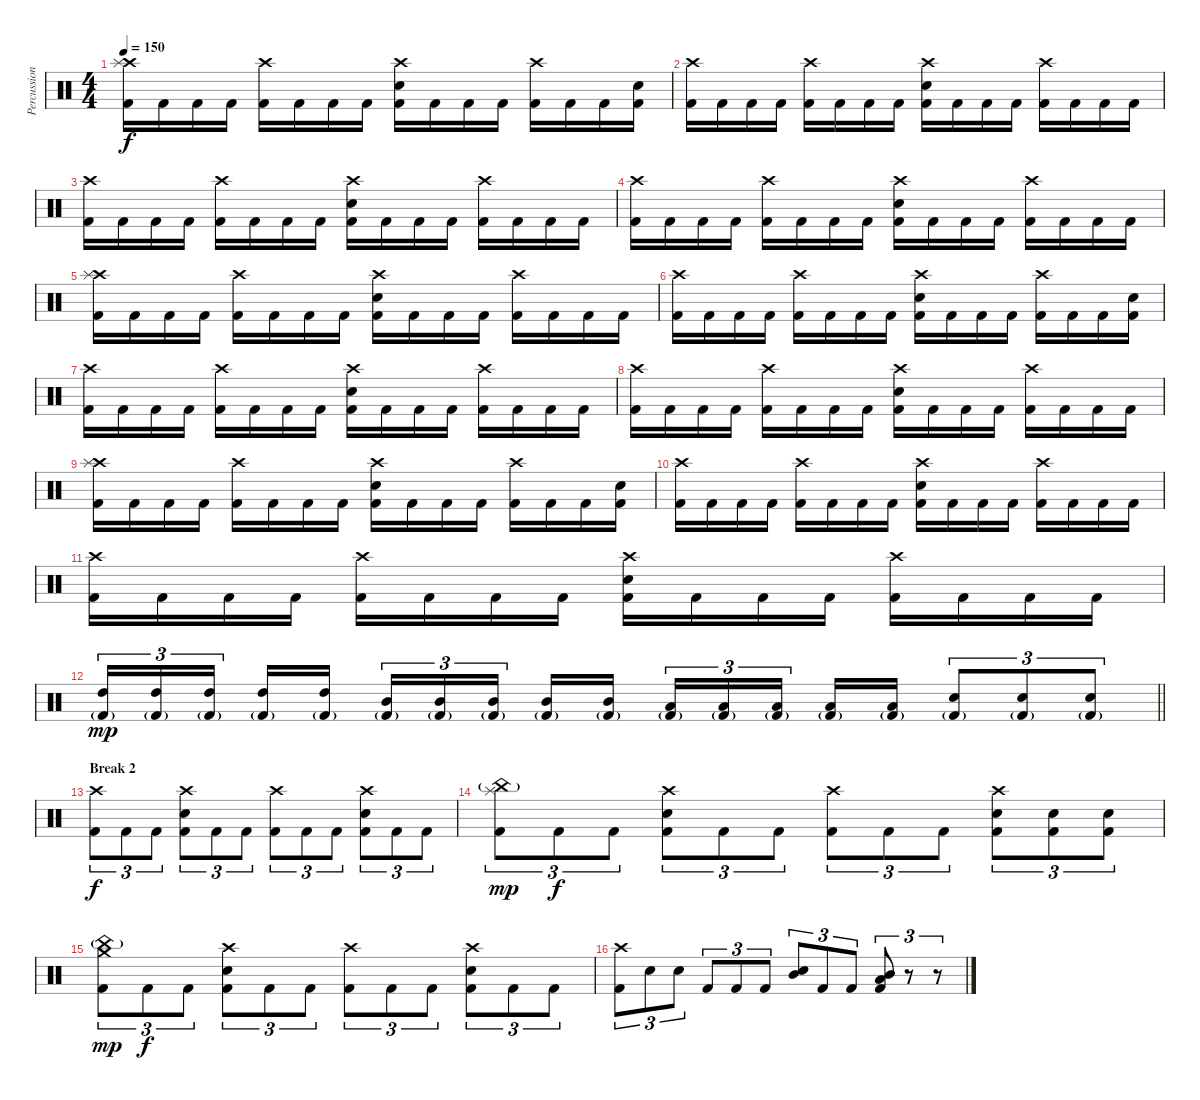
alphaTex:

\track ("Percussion" "Percussion") {instrument percussion}
\staff {score}
\articulation defaults
\ts (4 4)
\tempo 150
\clef neutral
\ks c
("Crash high (hit)" "Splash (hit)" "Kick (hit) 2").16{dy f} "Kick (hit) 2".16 "Kick (hit) 2".16 "Kick (hit) 2".16 ("Crash high (hit)" "Kick (hit) 2").16 "Kick (hit) 2".16 "Kick (hit) 2".16 "Kick (hit) 2".16 ("Crash high (hit)" "Snare (hit) 2" "Kick (hit) 2").16 "Kick (hit) 2".16 "Kick (hit) 2".16 "Kick (hit) 2".16 ("Crash high (hit)" "Kick (hit) 2").16 "Kick (hit) 2".16 "Kick (hit) 2".16 ("Snare (hit) 2" "Kick (hit) 2").16 |
("Crash high (hit)" "Kick (hit) 2").16 "Kick (hit) 2".16 "Kick (hit) 2".16 "Kick (hit) 2".16 ("Crash high (hit)" "Kick (hit) 2").16 "Kick (hit) 2".16 "Kick (hit) 2".16 "Kick (hit) 2".16 ("Crash high (hit)" "Snare (hit) 2" "Kick (hit) 2").16 "Kick (hit) 2".16 "Kick (hit) 2".16 "Kick (hit) 2".16 ("Crash high (hit)" "Kick (hit) 2").16 "Kick (hit) 2".16 "Kick (hit) 2".16 "Kick (hit) 2".16 |
("Crash high (hit)" "Kick (hit) 2").16 "Kick (hit) 2".16 "Kick (hit) 2".16 "Kick (hit) 2".16 ("Crash high (hit)" "Kick (hit) 2").16 "Kick (hit) 2".16 "Kick (hit) 2".16 "Kick (hit) 2".16 ("Crash high (hit)" "Snare (hit) 2" "Kick (hit) 2").16 "Kick (hit) 2".16 "Kick (hit) 2".16 "Kick (hit) 2".16 ("Crash high (hit)" "Kick (hit) 2").16 "Kick (hit) 2".16 "Kick (hit) 2".16 "Kick (hit) 2".16 |
("Crash high (hit)" "Kick (hit) 2").16 "Kick (hit) 2".16 "Kick (hit) 2".16 "Kick (hit) 2".16 ("Crash high (hit)" "Kick (hit) 2").16 "Kick (hit) 2".16 "Kick (hit) 2".16 "Kick (hit) 2".16 ("Crash high (hit)" "Snare (hit) 2" "Kick (hit) 2").16 "Kick (hit) 2".16 "Kick (hit) 2".16 "Kick (hit) 2".16 ("Crash high (hit)" "Kick (hit) 2").16 "Kick (hit) 2".16 "Kick (hit) 2".16 "Kick (hit) 2".16 |
("Crash high (hit)" "Splash (hit)" "Kick (hit) 2").16 "Kick (hit) 2".16 "Kick (hit) 2".16 "Kick (hit) 2".16 ("Crash high (hit)" "Kick (hit) 2").16 "Kick (hit) 2".16 "Kick (hit) 2".16 "Kick (hit) 2".16 ("Crash high (hit)" "Snare (hit) 2" "Kick (hit) 2").16 "Kick (hit) 2".16 "Kick (hit) 2".16 "Kick (hit) 2".16 ("Crash high (hit)" "Kick (hit) 2").16 "Kick (hit) 2".16 "Kick (hit) 2".16 "Kick (hit) 2".16 |
("Crash high (hit)" "Kick (hit) 2").16 "Kick (hit) 2".16 "Kick (hit) 2".16 "Kick (hit) 2".16 ("Crash high (hit)" "Kick (hit) 2").16 "Kick (hit) 2".16 "Kick (hit) 2".16 "Kick (hit) 2".16 ("Crash high (hit)" "Snare (hit) 2" "Kick (hit) 2").16 "Kick (hit) 2".16 "Kick (hit) 2".16 "Kick (hit) 2".16 ("Crash high (hit)" "Kick (hit) 2").16 "Kick (hit) 2".16 "Kick (hit) 2".16 ("Snare (hit) 2" "Kick (hit) 2").16 |
("Crash high (hit)" "Kick (hit) 2").16 "Kick (hit) 2".16 "Kick (hit) 2".16 "Kick (hit) 2".16 ("Crash high (hit)" "Kick (hit) 2").16 "Kick (hit) 2".16 "Kick (hit) 2".16 "Kick (hit) 2".16 ("Crash high (hit)" "Snare (hit) 2" "Kick (hit) 2").16 "Kick (hit) 2".16 "Kick (hit) 2".16 "Kick (hit) 2".16 ("Crash high (hit)" "Kick (hit) 2").16 "Kick (hit) 2".16 "Kick (hit) 2".16 "Kick (hit) 2".16 |
("Crash high (hit)" "Kick (hit) 2").16 "Kick (hit) 2".16 "Kick (hit) 2".16 "Kick (hit) 2".16 ("Crash high (hit)" "Kick (hit) 2").16 "Kick (hit) 2".16 "Kick (hit) 2".16 "Kick (hit) 2".16 ("Crash high (hit)" "Snare (hit) 2" "Kick (hit) 2").16 "Kick (hit) 2".16 "Kick (hit) 2".16 "Kick (hit) 2".16 ("Crash high (hit)" "Kick (hit) 2").16 "Kick (hit) 2".16 "Kick (hit) 2".16 "Kick (hit) 2".16 |
("Crash high (hit)" "Splash (hit)" "Kick (hit) 2").16 "Kick (hit) 2".16 "Kick (hit) 2".16 "Kick (hit) 2".16 ("Crash high (hit)" "Kick (hit) 2").16 "Kick (hit) 2".16 "Kick (hit) 2".16 "Kick (hit) 2".16 ("Crash high (hit)" "Snare (hit) 2" "Kick (hit) 2").16 "Kick (hit) 2".16 "Kick (hit) 2".16 "Kick (hit) 2".16 ("Crash high (hit)" "Kick (hit) 2").16 "Kick (hit) 2".16 "Kick (hit) 2".16 ("Snare (hit) 2" "Kick (hit) 2").16 |
("Crash high (hit)" "Kick (hit) 2").16 "Kick (hit) 2".16 "Kick (hit) 2".16 "Kick (hit) 2".16 ("Crash high (hit)" "Kick (hit) 2").16 "Kick (hit) 2".16 "Kick (hit) 2".16 "Kick (hit) 2".16 ("Crash high (hit)" "Snare (hit) 2" "Kick (hit) 2").16 "Kick (hit) 2".16 "Kick (hit) 2".16 "Kick (hit) 2".16 ("Crash high (hit)" "Kick (hit) 2").16 "Kick (hit) 2".16 "Kick (hit) 2".16 "Kick (hit) 2".16 |
("Crash high (hit)" "Kick (hit) 2").16 "Kick (hit) 2".16 "Kick (hit) 2".16 "Kick (hit) 2".16 ("Crash high (hit)" "Kick (hit) 2").16 "Kick (hit) 2".16 "Kick (hit) 2".16 "Kick (hit) 2".16 ("Crash high (hit)" "Snare (hit) 2" "Kick (hit) 2").16 "Kick (hit) 2".16 "Kick (hit) 2".16 "Kick (hit) 2".16 ("Crash high (hit)" "Kick (hit) 2").16 "Kick (hit) 2".16 "Kick (hit) 2".16 "Kick (hit) 2".16 |
\barLineRight lightlight
("High Tom (hit)" "Kick (hit) 2"{g}).16{tu (3 2) dy mp} ("High Tom (hit)" "Kick (hit) 2"{g}).16{tu (3 2)} ("High Tom (hit)" "Kick (hit) 2"{g}).16{tu (3 2) beam splitsecondary} ("High Tom (hit)" "Kick (hit) 2"{g}).16 ("High Tom (hit)" "Kick (hit) 2"{g}).16 ("Mid Tom (hit)" "Kick (hit) 2"{g}).16{tu (3 2)} ("Mid Tom (hit)" "Kick (hit) 2"{g}).16{tu (3 2)} ("Mid Tom (hit)" "Kick (hit) 2"{g}).16{tu (3 2) beam splitsecondary} ("Mid Tom (hit)" "Kick (hit) 2"{g}).16 ("Mid Tom (hit)" "Kick (hit) 2"{g}).16 ("Low Tom (hit)" "Kick (hit) 2"{g}).16{tu (3 2)} ("Low Tom (hit)" "Kick (hit) 2"{g}).16{tu (3 2)} ("Low Tom (hit)" "Kick (hit) 2"{g}).16{tu (3 2) beam splitsecondary} ("Low Tom (hit)" "Kick (hit) 2"{g}).16 ("Low Tom (hit)" "Kick (hit) 2"{g}).16 ("Snare (hit) 2" "Kick (hit) 2"{g}).8{tu (3 2)} ("Snare (hit) 2" "Kick (hit) 2"{g}).8{tu (3 2)} ("Snare (hit) 2" "Kick (hit) 2"{g}).8{tu (3 2)} |
\section ("" "Break 2")
("Crash high (hit)" "Kick (hit) 2").8{tu (3 2) dy f} "Kick (hit) 2".8{tu (3 2)} "Kick (hit) 2".8{tu (3 2)} ("Crash high (hit)" "Snare (hit) 2" "Kick (hit) 2").8{tu (3 2)} "Kick (hit) 2".8{tu (3 2)} "Kick (hit) 2".8{tu (3 2)} ("Crash high (hit)" "Kick (hit) 2").8{tu (3 2)} "Kick (hit) 2".8{tu (3 2)} "Kick (hit) 2".8{tu (3 2)} ("Crash high (hit)" "Snare (hit) 2" "Kick (hit) 2").8{tu (3 2)} "Kick (hit) 2".8{tu (3 2)} "Kick (hit) 2".8{tu (3 2)} |
("Splash (hit)" "China (hit)"{g} "Kick (hit) 2").8{tu (3 2) dy mp} "Kick (hit) 2".8{tu (3 2) dy f} "Kick (hit) 2".8{tu (3 2)} ("Crash high (hit)" "Snare (hit) 2" "Kick (hit) 2").8{tu (3 2)} "Kick (hit) 2".8{tu (3 2)} "Kick (hit) 2".8{tu (3 2)} ("Crash high (hit)" "Kick (hit) 2").8{tu (3 2)} "Kick (hit) 2".8{tu (3 2)} "Kick (hit) 2".8{tu (3 2)} ("Crash high (hit)" "Snare (hit) 2" "Kick (hit) 2").8{tu (3 2)} ("Snare (hit) 2" "Kick (hit) 2").8{tu (3 2)} ("Snare (hit) 2" "Kick (hit) 2").8{tu (3 2)} |
("Crash medium (hit)" "China (hit)"{g} "Kick (hit) 2").8{tu (3 2) dy mp} "Kick (hit) 2".8{tu (3 2) dy f} "Kick (hit) 2".8{tu (3 2)} ("Crash high (hit)" "Snare (hit) 2" "Kick (hit) 2").8{tu (3 2)} "Kick (hit) 2".8{tu (3 2)} "Kick (hit) 2".8{tu (3 2)} ("Crash high (hit)" "Kick (hit) 2").8{tu (3 2)} "Kick (hit) 2".8{tu (3 2)} "Kick (hit) 2".8{tu (3 2)} ("Crash high (hit)" "Snare (hit) 2" "Kick (hit) 2").8{tu (3 2)} "Kick (hit) 2".8{tu (3 2)} "Kick (hit) 2".8{tu (3 2)} |
("Crash high (hit)" "Kick (hit) 2").8{tu (3 2)} "Snare (hit) 2".8{tu (3 2)} "Snare (hit) 2".8{tu (3 2)} "Kick (hit) 2".8{tu (3 2)} "Kick (hit) 2".8{tu (3 2)} "Kick (hit) 2".8{tu (3 2)} ("Snare (hit) 2" "Mid Tom (hit)").8{tu (3 2)} "Kick (hit) 2".8{tu (3 2)} "Kick (hit) 2".8{tu (3 2)} ("Mid Tom (hit)" "Low Tom (hit)" "Kick (hit) 2").8{tu (3 2)} r.8{tu (3 2)} r.8{tu (3 2)}
